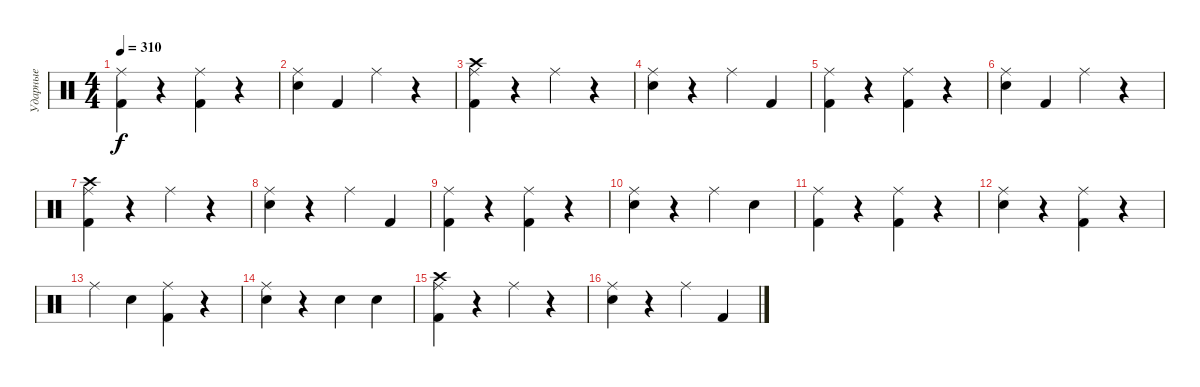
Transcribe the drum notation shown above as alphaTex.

\track ("Ударные" "Ударные") {instrument percussion}
\staff {score}
\articulation defaults
\ts (4 4)
\tempo 310
\clef neutral
\ks c
("Ride (middle)" "Kick (hit) 2").4{dy f} r.4 ("Ride (middle)" "Kick (hit) 2").4 r.4 |
("Ride (middle)" "Electric Snare (hit)").4 "Kick (hit) 2".4 "Ride (middle)".4 r.4 |
("Crash high (hit)" "Ride (middle)" "Kick (hit) 2").4 r.4 "Ride (middle)".4 r.4 |
("Ride (middle)" "Electric Snare (hit)").4 r.4 "Ride (middle)".4 "Kick (hit) 2".4 |
("Ride (middle)" "Kick (hit) 2").4 r.4 ("Ride (middle)" "Kick (hit) 2").4 r.4 |
("Ride (middle)" "Electric Snare (hit)").4 "Kick (hit) 2".4 "Ride (middle)".4 r.4 |
("Crash high (hit)" "Ride (middle)" "Kick (hit) 2").4 r.4 "Ride (middle)".4 r.4 |
("Ride (middle)" "Electric Snare (hit)").4 r.4 "Ride (middle)".4 "Kick (hit) 2".4 |
("Ride (middle)" "Kick (hit) 2").4 r.4 ("Ride (middle)" "Kick (hit) 2").4 r.4 |
("Ride (middle)" "Electric Snare (hit)").4 r.4 "Ride (middle)".4 "Electric Snare (hit)".4 |
("Ride (middle)" "Kick (hit) 2").4 r.4 ("Ride (middle)" "Kick (hit) 2").4 r.4 |
("Ride (middle)" "Electric Snare (hit)").4 r.4 ("Ride (middle)" "Kick (hit) 2").4 r.4 |
"Ride (middle)".4 "Electric Snare (hit)".4 ("Ride (middle)" "Kick (hit) 2").4 r.4 |
("Ride (middle)" "Electric Snare (hit)").4 r.4 "Electric Snare (hit)".4 "Electric Snare (hit)".4 |
("Crash high (hit)" "Ride (middle)" "Kick (hit) 2").4 r.4 "Ride (middle)".4 r.4 |
("Ride (middle)" "Electric Snare (hit)").4 r.4 "Ride (middle)".4 "Kick (hit) 2".4
